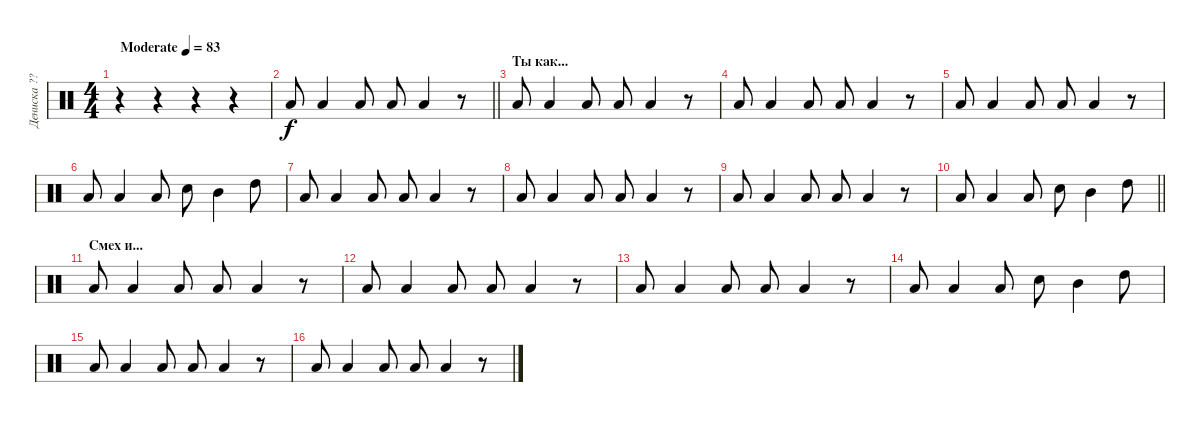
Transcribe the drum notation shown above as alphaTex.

\track ("Дениска ??" "Дениска ??") {instrument percussion}
\staff {score}
\articulation defaults
\ts (4 4)
\tempo (83 "Moderate")
\clef neutral
\ks c
r.4{dy f} r.4 r.4 r.4 |
\barLineRight lightlight "Low Tom (hit)".8 "Low Tom (hit)".4 "Low Tom (hit)".8 "Low Tom (hit)".8 "Low Tom (hit)".4
r.8 |
\section ("" "Ты как...")
"Low Tom (hit)".8 "Low Tom (hit)".4 "Low Tom (hit)".8 "Low Tom (hit)".8 "Low Tom (hit)".4 r.8 |
"Low Tom (hit)".8 "Low Tom (hit)".4 "Low Tom (hit)".8 "Low Tom (hit)".8 "Low Tom (hit)".4 r.8 |
"Low Tom (hit)".8 "Low Tom (hit)".4 "Low Tom (hit)".8 "Low Tom (hit)".8 "Low Tom (hit)".4 r.8 |
"Low Tom (hit)".8 "Low Tom (hit)".4 "Low Tom (hit)".8 "Snare (hit) 2".8 "Mid Tom (hit)".4 "High Tom (hit)".8 |
"Low Tom (hit)".8 "Low Tom (hit)".4 "Low Tom (hit)".8 "Low Tom (hit)".8 "Low Tom (hit)".4 r.8 |
"Low Tom (hit)".8 "Low Tom (hit)".4 "Low Tom (hit)".8 "Low Tom (hit)".8 "Low Tom (hit)".4 r.8 |
"Low Tom (hit)".8 "Low Tom (hit)".4 "Low Tom (hit)".8 "Low Tom (hit)".8 "Low Tom (hit)".4 r.8 |
\barLineRight lightlight "Low Tom (hit)".8 "Low Tom (hit)".4 "Low Tom (hit)".8 "Snare (hit) 2".8 "Mid Tom (hit)".4 "High Tom (hit)".8
|
\section ("" "Смех и...")
"Low Tom (hit)".8 "Low Tom (hit)".4 "Low Tom (hit)".8 "Low Tom (hit)".8 "Low Tom (hit)".4 r.8 |
"Low Tom (hit)".8 "Low Tom (hit)".4 "Low Tom (hit)".8 "Low Tom (hit)".8 "Low Tom (hit)".4 r.8 |
"Low Tom (hit)".8 "Low Tom (hit)".4 "Low Tom (hit)".8 "Low Tom (hit)".8 "Low Tom (hit)".4 r.8 |
"Low Tom (hit)".8 "Low Tom (hit)".4 "Low Tom (hit)".8 "Snare (hit) 2".8 "Mid Tom (hit)".4 "High Tom (hit)".8 |
"Low Tom (hit)".8 "Low Tom (hit)".4 "Low Tom (hit)".8 "Low Tom (hit)".8 "Low Tom (hit)".4 r.8 |
"Low Tom (hit)".8 "Low Tom (hit)".4 "Low Tom (hit)".8 "Low Tom (hit)".8 "Low Tom (hit)".4 r.8
